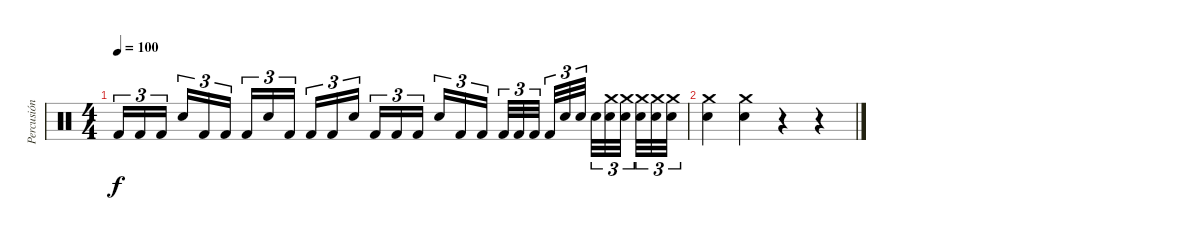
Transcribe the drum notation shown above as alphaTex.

\track ("Percusión" "Percusión") {instrument percussion}
\staff {score}
\articulation defaults
\ts (4 4)
\tempo 100
\clef neutral
\ks c "Kick (hit) 2".16{tu (3 2) dy f} "Kick (hit) 2".16{tu (3 2)} "Kick (hit) 2".16{tu (3 2)} "Snare (hit) 2".16{tu (3 2)} "Kick (hit) 2".16{tu (3 2)} "Kick (hit) 2".16{tu (3 2)} "Kick (hit) 2".16{tu (3 2)} "Snare (hit) 2".16{tu (3 2)} "Kick (hit) 2".16{tu (3 2)} "Kick (hit) 2".16{tu (3 2)} "Kick (hit) 2".16{tu (3 2)} "Snare (hit) 2".16{tu (3 2)} "Kick (hit) 2".16{tu (3 2)} "Kick (hit) 2".16{tu (3 2)} "Kick (hit) 2".16{tu (3 2)} "Snare (hit) 2".16{tu (3 2)} "Kick (hit) 2".16{tu (3 2)} "Kick (hit) 2".16{tu (3 2)} "Kick (hit) 2".32{tu (3 2)} "Kick (hit) 2".32{tu (3 2)} "Kick (hit) 2".32{tu (3 2)} "Kick (hit) 2".32{tu (3 2)} "Snare (hit) 2".32{tu (3 2)} "Snare (hit) 2".32{tu (3 2)} "Snare (hit) 2".32{tu (3 2)}
("Snare (hit) 2" "Crash medium (hit)").32{tu (3 2)} ("Snare (hit) 2" "Crash medium (hit)").32{tu (3 2)} ("Snare (hit) 2" "Crash medium (hit)").32{tu (3 2)} ("Snare (hit) 2" "Crash medium (hit)").32{tu (3 2)} ("Snare (hit) 2" "Crash medium (hit)").32{tu (3 2)} |
("Snare (hit) 2" "Crash medium (hit)").4 ("Snare (hit) 2" "Crash medium (hit)").4 r.4 r.4
